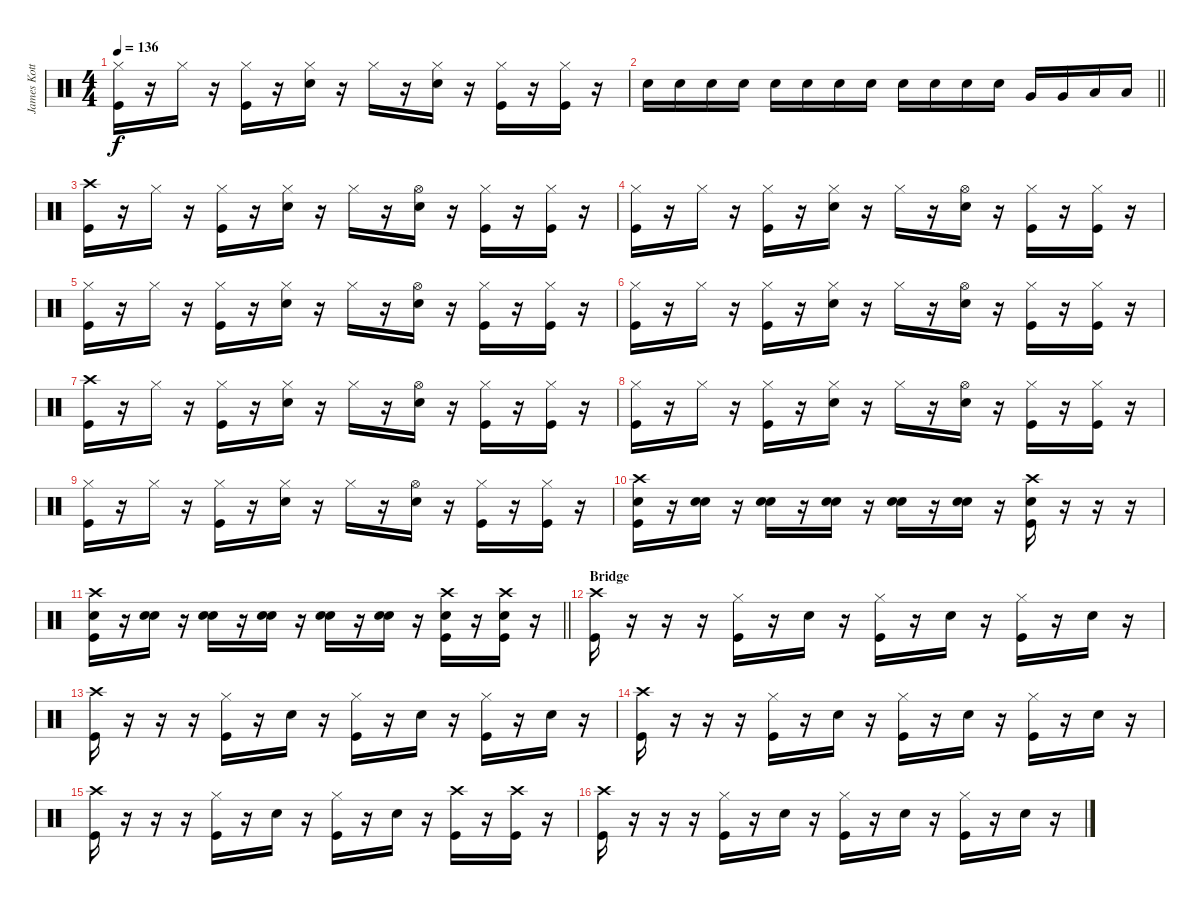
\track ("James Kottak" "James Kott") {instrument percussion}
\staff {score}
\articulation defaults
\ts (4 4)
\tempo 136
\clef neutral
\ks c
("Hi-Hat (closed)" "Kick (hit)").16{dy f} r.16 "Hi-Hat (closed)".16 r.16 ("Hi-Hat (closed)" "Kick (hit)").16 r.16 ("Hi-Hat (closed)" "Snare (hit) 2").16 r.16 "Hi-Hat (closed)".16 r.16 ("Hi-Hat (closed)" "Snare (hit) 2").16 r.16 ("Hi-Hat (closed)" "Kick (hit)").16 r.16 ("Hi-Hat (closed)" "Kick (hit)").16 r.16 |
\barLineRight lightlight "Snare (hit) 2".16 "Snare (hit) 2".16 "Snare (hit) 2".16 "Snare (hit) 2".16 "Snare (hit) 2".16 "Snare (hit) 2".16 "Snare (hit) 2".16 "Snare (hit) 2".16 "Snare (hit) 2".16 "Snare (hit) 2".16 "Snare (hit) 2".16 "Snare (hit) 2".16 "Very Low Tom (hit)".16 "Very Low Tom (hit)".16 "Low Floor Tom (hit)".16 "Low Floor Tom (hit)".16
|
("Crash high (hit)" "Kick (hit)").16 r.16 "Hi-Hat (closed)".16 r.16 ("Hi-Hat (closed)" "Kick (hit)").16 r.16 ("Hi-Hat (closed)" "Snare (hit) 2").16 r.16 "Hi-Hat (closed)".16 r.16 ("Hi-Hat (open)" "Snare (hit) 2").16 r.16 ("Hi-Hat (closed)" "Kick (hit)").16 r.16 ("Hi-Hat (closed)" "Kick (hit)").16 r.16 |
("Hi-Hat (closed)" "Kick (hit)").16 r.16 "Hi-Hat (closed)".16 r.16 ("Hi-Hat (closed)" "Kick (hit)").16 r.16 ("Hi-Hat (closed)" "Snare (hit) 2").16 r.16 "Hi-Hat (closed)".16 r.16 ("Hi-Hat (open)" "Snare (hit) 2").16 r.16 ("Hi-Hat (closed)" "Kick (hit)").16 r.16 ("Hi-Hat (closed)" "Kick (hit)").16 r.16 |
("Hi-Hat (closed)" "Kick (hit)").16 r.16 "Hi-Hat (closed)".16 r.16 ("Hi-Hat (closed)" "Kick (hit)").16 r.16 ("Hi-Hat (closed)" "Snare (hit) 2").16 r.16 "Hi-Hat (closed)".16 r.16 ("Hi-Hat (open)" "Snare (hit) 2").16 r.16 ("Hi-Hat (closed)" "Kick (hit)").16 r.16 ("Hi-Hat (closed)" "Kick (hit)").16 r.16 |
("Hi-Hat (closed)" "Kick (hit)").16 r.16 "Hi-Hat (closed)".16 r.16 ("Hi-Hat (closed)" "Kick (hit)").16 r.16 ("Hi-Hat (closed)" "Snare (hit) 2").16 r.16 "Hi-Hat (closed)".16 r.16 ("Hi-Hat (open)" "Snare (hit) 2").16 r.16 ("Hi-Hat (closed)" "Kick (hit)").16 r.16 ("Hi-Hat (closed)" "Kick (hit)").16 r.16 |
("Crash high (hit)" "Kick (hit)").16 r.16 "Hi-Hat (closed)".16 r.16 ("Hi-Hat (closed)" "Kick (hit)").16 r.16 ("Hi-Hat (closed)" "Snare (hit) 2").16 r.16 "Hi-Hat (closed)".16 r.16 ("Hi-Hat (open)" "Snare (hit) 2").16 r.16 ("Hi-Hat (closed)" "Kick (hit)").16 r.16 ("Hi-Hat (closed)" "Kick (hit)").16 r.16 |
("Hi-Hat (closed)" "Kick (hit)").16 r.16 "Hi-Hat (closed)".16 r.16 ("Hi-Hat (closed)" "Kick (hit)").16 r.16 ("Hi-Hat (closed)" "Snare (hit) 2").16 r.16 "Hi-Hat (closed)".16 r.16 ("Hi-Hat (open)" "Snare (hit) 2").16 r.16 ("Hi-Hat (closed)" "Kick (hit)").16 r.16 ("Hi-Hat (closed)" "Kick (hit)").16 r.16 |
("Hi-Hat (closed)" "Kick (hit)").16 r.16 "Hi-Hat (closed)".16 r.16 ("Hi-Hat (closed)" "Kick (hit)").16 r.16 ("Hi-Hat (closed)" "Snare (hit) 2").16 r.16 "Hi-Hat (closed)".16 r.16 ("Hi-Hat (open)" "Snare (hit) 2").16 r.16 ("Hi-Hat (closed)" "Kick (hit)").16 r.16 ("Hi-Hat (closed)" "Kick (hit)").16 r.16 |
("Crash high (hit)" "Snare (hit) 2" "Kick (hit)").16 r.16 ("Snare (hit) 2" "Snare (hit) 2").16 r.16 ("Snare (hit) 2" "Snare (hit) 2").16 r.16 ("Snare (hit) 2" "Snare (hit) 2").16 r.16 ("Snare (hit) 2" "Snare (hit) 2").16 r.16 ("Snare (hit) 2" "Snare (hit) 2").16 r.16 ("Crash high (hit)" "Snare (hit) 2" "Kick (hit)").16 r.16 r.16 r.16 |
\barLineRight lightlight
("Crash high (hit)" "Snare (hit) 2" "Kick (hit)").16 r.16 ("Snare (hit) 2" "Snare (hit) 2").16 r.16 ("Snare (hit) 2" "Snare (hit) 2").16 r.16 ("Snare (hit) 2" "Snare (hit) 2").16 r.16 ("Snare (hit) 2" "Snare (hit) 2").16 r.16 ("Snare (hit) 2" "Snare (hit) 2").16 r.16 ("Crash high (hit)" "Snare (hit) 2" "Kick (hit)").16 r.16 ("Crash high (hit)" "Snare (hit) 2" "Kick (hit)").16 r.16 |
\section ("" "Bridge")
("Crash high (hit)" "Kick (hit)").16 r.16 r.16 r.16 ("Hi-Hat (closed)" "Kick (hit)").16 r.16 "Snare (hit) 2".16 r.16 ("Hi-Hat (closed)" "Kick (hit)").16 r.16 "Snare (hit) 2".16 r.16 ("Hi-Hat (closed)" "Kick (hit)").16 r.16 "Snare (hit) 2".16 r.16 |
("Crash high (hit)" "Kick (hit)").16 r.16 r.16 r.16 ("Hi-Hat (closed)" "Kick (hit)").16 r.16 "Snare (hit) 2".16 r.16 ("Hi-Hat (closed)" "Kick (hit)").16 r.16 "Snare (hit) 2".16 r.16 ("Hi-Hat (closed)" "Kick (hit)").16 r.16 "Snare (hit) 2".16 r.16 |
("Crash high (hit)" "Kick (hit)").16 r.16 r.16 r.16 ("Hi-Hat (closed)" "Kick (hit)").16 r.16 "Snare (hit) 2".16 r.16 ("Hi-Hat (closed)" "Kick (hit)").16 r.16 "Snare (hit) 2".16 r.16 ("Hi-Hat (closed)" "Kick (hit)").16 r.16 "Snare (hit) 2".16 r.16 |
("Crash high (hit)" "Kick (hit)").16 r.16 r.16 r.16 ("Hi-Hat (closed)" "Kick (hit)").16 r.16 "Snare (hit) 2".16 r.16 ("Hi-Hat (closed)" "Kick (hit)").16 r.16 "Snare (hit) 2".16 r.16 ("Crash high (hit)" "Kick (hit)").16 r.16 ("Crash high (hit)" "Kick (hit)").16 r.16 |
("Crash high (hit)" "Kick (hit)").16 r.16 r.16 r.16 ("Hi-Hat (closed)" "Kick (hit)").16 r.16 "Snare (hit) 2".16 r.16 ("Hi-Hat (closed)" "Kick (hit)").16 r.16 "Snare (hit) 2".16 r.16 ("Hi-Hat (closed)" "Kick (hit)").16 r.16 "Snare (hit) 2".16 r.16
